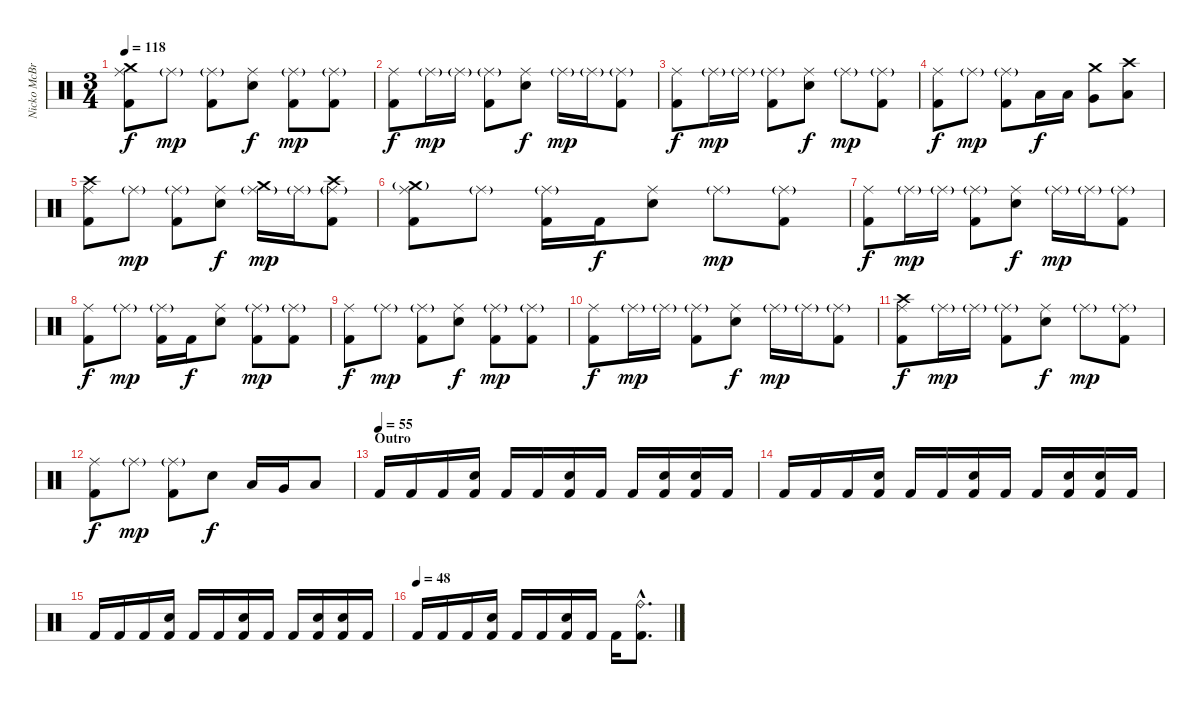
\track ("Nicko McBrain" "Nicko McBr") {instrument percussion}
\staff {score}
\articulation defaults
\ts (3 4)
\tempo 118
\clef neutral
\ks c
("Ride (middle)" "Crash medium (hit)" "Kick (hit) 2").8{dy f} "Ride (middle)"{g}.8{dy mp} ("Ride (middle)"{g} "Kick (hit) 2").8 ("Ride (middle)" "Electric Snare (hit)").8{dy f} ("Ride (middle)"{g} "Kick (hit) 2").8{dy mp} ("Ride (middle)"{g} "Kick (hit) 2").8 |
("Ride (middle)" "Kick (hit) 2").8{dy f} "Ride (middle)"{g}.16{dy mp} "Ride (middle)"{g}.16 ("Ride (middle)"{g} "Kick (hit) 2").8 ("Ride (middle)" "Electric Snare (hit)").8{dy f} "Ride (middle)"{g}.16{dy mp} "Ride (middle)"{g}.16 ("Ride (middle)"{g} "Kick (hit) 2").8 |
("Ride (middle)" "Kick (hit) 2").8{dy f} "Ride (middle)"{g}.16{dy mp} "Ride (middle)"{g}.16 ("Ride (middle)"{g} "Kick (hit) 2").8 ("Ride (middle)" "Electric Snare (hit)").8{dy f} "Ride (middle)"{g}.8{dy mp} ("Ride (middle)"{g} "Kick (hit) 2").8 |
("Ride (middle)" "Kick (hit) 2").8{dy f} "Ride (middle)"{g}.8{dy mp} ("Ride (middle)"{g} "Kick (hit) 2").8 "Low Tom (hit)".16{dy f} "Low Tom (hit)".16 ("Very Low Tom (hit)" "Crash medium (hit)").8 ("Low Floor Tom (hit)" "Crash high (hit)").8 |
("Ride (middle)" "Crash high (hit)" "Kick (hit) 2").8 "Ride (middle)"{g}.8{dy mp} ("Ride (middle)"{g} "Kick (hit) 2").8 ("Ride (middle)" "Electric Snare (hit)").8{dy f} ("Ride (middle)"{g} "Crash medium (hit)").16{dy mp} "Ride (middle)"{g}.16 ("Ride (middle)"{g} "Crash high (hit)" "Kick (hit) 2").8 |
("Ride (middle)" "Crash medium (hit)"{g} "Kick (hit) 2").8 "Ride (middle)"{g}.8 ("Ride (middle)"{g} "Kick (hit) 2").16 "Kick (hit) 2".16{dy f} ("Ride (middle)" "Electric Snare (hit)").8 "Ride (middle)"{g}.8{dy mp} ("Ride (middle)"{g} "Kick (hit) 2").8 |
("Ride (middle)" "Kick (hit) 2").8{dy f} "Ride (middle)"{g}.16{dy mp} "Ride (middle)"{g}.16 ("Ride (middle)"{g} "Kick (hit) 2").8 ("Ride (middle)" "Electric Snare (hit)").8{dy f} "Ride (middle)"{g}.16{dy mp} "Ride (middle)"{g}.16 ("Ride (middle)"{g} "Kick (hit) 2").8 |
("Ride (middle)" "Kick (hit) 2").8{dy f} "Ride (middle)"{g}.8{dy mp} ("Ride (middle)"{g} "Kick (hit) 2").16 "Kick (hit) 2".16{dy f} ("Ride (middle)" "Electric Snare (hit)").8 ("Ride (middle)"{g} "Kick (hit) 2").8{dy mp} ("Ride (middle)"{g} "Kick (hit) 2").8 |
("Ride (middle)" "Kick (hit) 2").8{dy f} "Ride (middle)"{g}.8{dy mp} ("Ride (middle)"{g} "Kick (hit) 2").8 ("Ride (middle)" "Electric Snare (hit)").8{dy f} ("Ride (middle)"{g} "Kick (hit) 2").8{dy mp} ("Ride (middle)"{g} "Kick (hit) 2").8 |
("Ride (middle)" "Kick (hit) 2").8{dy f} "Ride (middle)"{g}.16{dy mp} "Ride (middle)"{g}.16 ("Ride (middle)"{g} "Kick (hit) 2").8 ("Ride (middle)" "Electric Snare (hit)").8{dy f} "Ride (middle)"{g}.16{dy mp} "Ride (middle)"{g}.16 ("Ride (middle)"{g} "Kick (hit) 2").8 |
("Ride (middle)" "Crash high (hit)" "Kick (hit) 2").8{dy f} "Ride (middle)"{g}.16{dy mp} "Ride (middle)"{g}.16 ("Ride (middle)"{g} "Kick (hit) 2").8 ("Ride (middle)" "Electric Snare (hit)").8{dy f} "Ride (middle)"{g}.8{dy mp} ("Ride (middle)"{g} "Kick (hit) 2").8 |
("Ride (middle)" "Kick (hit) 2").8{dy f} "Ride (middle)"{g}.8{dy mp} ("Ride (middle)"{g} "Kick (hit) 2").8 "Electric Snare (hit)".8{dy f} "Low Tom (hit)".16 "Very Low Tom (hit)".16 "Low Floor Tom (hit)".8 |
\section ("" "Outro")
\tempo (55)
"Kick (hit) 2".16{volume 10} "Kick (hit) 2".16 "Kick (hit) 2".16 ("Electric Snare (hit)" "Kick (hit) 2").16 "Kick (hit) 2".16 "Kick (hit) 2".16 ("Electric Snare (hit)" "Kick (hit) 2").16 "Kick (hit) 2".16 "Kick (hit) 2".16 ("Electric Snare (hit)" "Kick (hit) 2").16 ("Electric Snare (hit)" "Kick (hit) 2").16 "Kick (hit) 2".16 |
"Kick (hit) 2".16 "Kick (hit) 2".16 "Kick (hit) 2".16 ("Electric Snare (hit)" "Kick (hit) 2").16 "Kick (hit) 2".16 "Kick (hit) 2".16 ("Electric Snare (hit)" "Kick (hit) 2").16 "Kick (hit) 2".16 "Kick (hit) 2".16 ("Electric Snare (hit)" "Kick (hit) 2").16 ("Electric Snare (hit)" "Kick (hit) 2").16 "Kick (hit) 2".16 |
"Kick (hit) 2".16 "Kick (hit) 2".16 "Kick (hit) 2".16 ("Electric Snare (hit)" "Kick (hit) 2").16 "Kick (hit) 2".16 "Kick (hit) 2".16 ("Electric Snare (hit)" "Kick (hit) 2").16 "Kick (hit) 2".16 "Kick (hit) 2".16 ("Electric Snare (hit)" "Kick (hit) 2").16 ("Electric Snare (hit)" "Kick (hit) 2").16 "Kick (hit) 2".16 |
\tempo (48)
"Kick (hit) 2".16 "Kick (hit) 2".16 "Kick (hit) 2".16 ("Electric Snare (hit)" "Kick (hit) 2").16 "Kick (hit) 2".16 "Kick (hit) 2".16 ("Electric Snare (hit)" "Kick (hit) 2").16 "Kick (hit) 2".16 "Kick (hit) 2".16 ("Ride (bell)"{hac} "Kick (hit) 2"{hac}).8{d}
